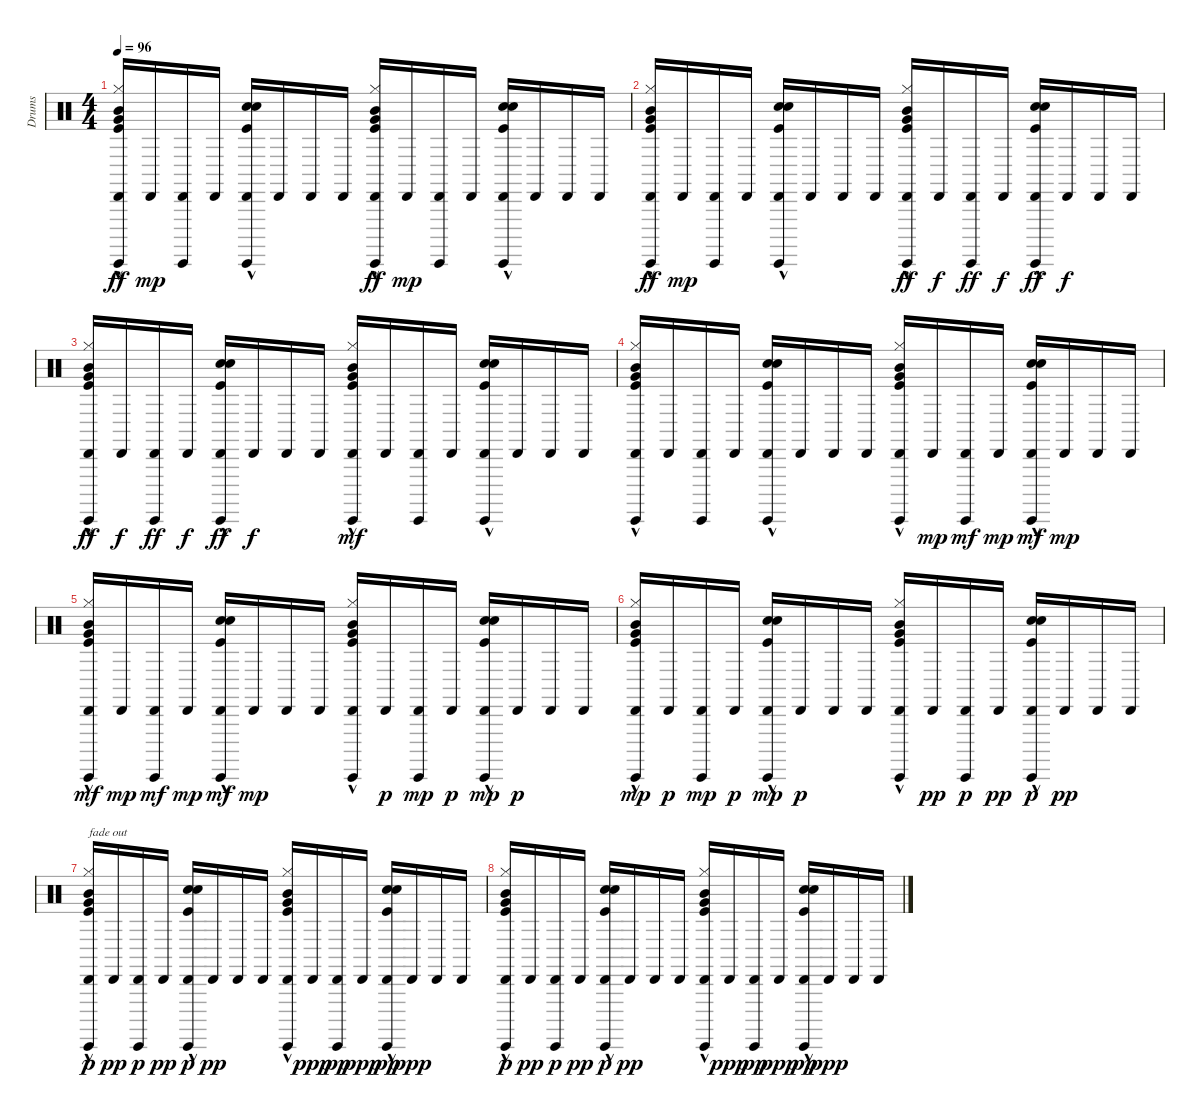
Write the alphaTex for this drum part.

\track ("Drums" "Drums") {instrument percussion}
\staff {score}
\articulation defaults
\ts (4 4)
\tempo 96
\clef neutral
\ks c
("Kick (hit)"{hac} "Hi-Hat (closed)"{hac} "Very Low Tom (hit)"{hac} "Cabasa (hit)" "Guiro (hit)" "Mid Tom (hit)"{hac}).16{dy ff} "Cabasa (hit)".16{dy mp} ("Cabasa (hit)" "Guiro (hit)").16 "Cabasa (hit)".16 ("Kick (hit)"{hac} "Snare (hit) 2"{hac} "Electric Snare (hit)"{hac} "Cabasa (hit)" "Guiro (hit)"{hac}).16 "Cabasa (hit)".16 "Cabasa (hit)".16 "Cabasa (hit)".16 ("Kick (hit)"{hac} "Hi-Hat (closed)"{hac} "Very Low Tom (hit)"{hac} "Cabasa (hit)" "Guiro (hit)" "Mid Tom (hit)"{hac}).16{dy ff} "Cabasa (hit)".16{dy mp} ("Cabasa (hit)" "Guiro (hit)").16 "Cabasa (hit)".16 ("Kick (hit)"{hac} "Snare (hit) 2"{hac} "Electric Snare (hit)"{hac} "Cabasa (hit)" "Guiro (hit)"{hac}).16 "Cabasa (hit)".16 "Cabasa (hit)".16 "Cabasa (hit)".16 |
("Kick (hit)"{hac} "Hi-Hat (closed)"{hac} "Very Low Tom (hit)"{hac} "Cabasa (hit)" "Guiro (hit)" "Mid Tom (hit)"{hac}).16{dy ff} "Cabasa (hit)".16{dy mp} ("Cabasa (hit)" "Guiro (hit)").16 "Cabasa (hit)".16 ("Kick (hit)"{hac} "Snare (hit) 2"{hac} "Electric Snare (hit)"{hac} "Cabasa (hit)" "Guiro (hit)"{hac}).16 "Cabasa (hit)".16 "Cabasa (hit)".16 "Cabasa (hit)".16 ("Kick (hit)"{hac} "Hi-Hat (closed)"{hac} "Very Low Tom (hit)"{hac} "Cabasa (hit)" "Guiro (hit)" "Mid Tom (hit)"{hac}).16{dy ff} "Cabasa (hit)".16{dy f} ("Cabasa (hit)" "Guiro (hit)").16{dy ff} "Cabasa (hit)".16{dy f} ("Kick (hit)"{hac} "Snare (hit) 2"{hac} "Electric Snare (hit)"{hac} "Cabasa (hit)" "Guiro (hit)"{hac}).16{dy ff} "Cabasa (hit)".16{dy f} "Cabasa (hit)".16 "Cabasa (hit)".16 |
("Kick (hit)"{hac} "Hi-Hat (closed)"{hac} "Very Low Tom (hit)"{hac} "Cabasa (hit)" "Guiro (hit)" "Mid Tom (hit)"{hac}).16{dy ff} "Cabasa (hit)".16{dy f} ("Cabasa (hit)" "Guiro (hit)").16{dy ff} "Cabasa (hit)".16{dy f} ("Kick (hit)"{hac} "Snare (hit) 2"{hac} "Electric Snare (hit)"{hac} "Cabasa (hit)" "Guiro (hit)"{hac}).16{dy ff} "Cabasa (hit)".16{dy f} "Cabasa (hit)".16 "Cabasa (hit)".16 ("Kick (hit)"{hac} "Hi-Hat (closed)"{hac} "Very Low Tom (hit)"{hac} "Cabasa (hit)" "Guiro (hit)" "Mid Tom (hit)"{hac}).16{dy mf} "Cabasa (hit)".16 ("Cabasa (hit)" "Guiro (hit)").16 "Cabasa (hit)".16 ("Kick (hit)"{hac} "Snare (hit) 2"{hac} "Electric Snare (hit)"{hac} "Cabasa (hit)" "Guiro (hit)"{hac}).16 "Cabasa (hit)".16 "Cabasa (hit)".16 "Cabasa (hit)".16 |
("Kick (hit)"{hac} "Hi-Hat (closed)"{hac} "Very Low Tom (hit)"{hac} "Cabasa (hit)" "Guiro (hit)" "Mid Tom (hit)"{hac}).16 "Cabasa (hit)".16 ("Cabasa (hit)" "Guiro (hit)").16 "Cabasa (hit)".16 ("Kick (hit)"{hac} "Snare (hit) 2"{hac} "Electric Snare (hit)"{hac} "Cabasa (hit)" "Guiro (hit)"{hac}).16 "Cabasa (hit)".16 "Cabasa (hit)".16 "Cabasa (hit)".16 ("Kick (hit)"{hac} "Hi-Hat (closed)"{hac} "Very Low Tom (hit)"{hac} "Cabasa (hit)" "Guiro (hit)" "Mid Tom (hit)"{hac}).16 "Cabasa (hit)".16{dy mp} ("Cabasa (hit)" "Guiro (hit)").16{dy mf} "Cabasa (hit)".16{dy mp} ("Kick (hit)"{hac} "Snare (hit) 2"{hac} "Electric Snare (hit)"{hac} "Cabasa (hit)" "Guiro (hit)"{hac}).16{dy mf} "Cabasa (hit)".16{dy mp} "Cabasa (hit)".16 "Cabasa (hit)".16 |
("Kick (hit)"{hac} "Hi-Hat (closed)"{hac} "Very Low Tom (hit)"{hac} "Cabasa (hit)" "Guiro (hit)" "Mid Tom (hit)"{hac}).16{dy mf} "Cabasa (hit)".16{dy mp} ("Cabasa (hit)" "Guiro (hit)").16{dy mf} "Cabasa (hit)".16{dy mp} ("Kick (hit)"{hac} "Snare (hit) 2"{hac} "Electric Snare (hit)"{hac} "Cabasa (hit)" "Guiro (hit)"{hac}).16{dy mf} "Cabasa (hit)".16{dy mp} "Cabasa (hit)".16 "Cabasa (hit)".16 ("Kick (hit)"{hac} "Hi-Hat (closed)"{hac} "Very Low Tom (hit)"{hac} "Cabasa (hit)" "Guiro (hit)" "Mid Tom (hit)"{hac}).16 "Cabasa (hit)".16{dy p} ("Cabasa (hit)" "Guiro (hit)").16{dy mp} "Cabasa (hit)".16{dy p} ("Kick (hit)"{hac} "Snare (hit) 2"{hac} "Electric Snare (hit)"{hac} "Cabasa (hit)" "Guiro (hit)"{hac}).16{dy mp} "Cabasa (hit)".16{dy p} "Cabasa (hit)".16 "Cabasa (hit)".16 |
("Kick (hit)"{hac} "Hi-Hat (closed)"{hac} "Very Low Tom (hit)"{hac} "Cabasa (hit)" "Guiro (hit)" "Mid Tom (hit)"{hac}).16{dy mp} "Cabasa (hit)".16{dy p} ("Cabasa (hit)" "Guiro (hit)").16{dy mp} "Cabasa (hit)".16{dy p} ("Kick (hit)"{hac} "Snare (hit) 2"{hac} "Electric Snare (hit)"{hac} "Cabasa (hit)" "Guiro (hit)"{hac}).16{dy mp} "Cabasa (hit)".16{dy p} "Cabasa (hit)".16 "Cabasa (hit)".16 ("Kick (hit)"{hac} "Hi-Hat (closed)"{hac} "Very Low Tom (hit)"{hac} "Cabasa (hit)" "Guiro (hit)" "Mid Tom (hit)"{hac}).16 "Cabasa (hit)".16{dy pp} ("Cabasa (hit)" "Guiro (hit)").16{dy p} "Cabasa (hit)".16{dy pp} ("Kick (hit)"{hac} "Snare (hit) 2"{hac} "Electric Snare (hit)"{hac} "Cabasa (hit)" "Guiro (hit)"{hac}).16{dy p} "Cabasa (hit)".16{dy pp} "Cabasa (hit)".16 "Cabasa (hit)".16 |
("Kick (hit)"{hac} "Hi-Hat (closed)"{hac} "Very Low Tom (hit)"{hac} "Cabasa (hit)" "Guiro (hit)" "Mid Tom (hit)"{hac}).16{txt "fade out" dy p volume 0} "Cabasa (hit)".16{dy pp} ("Cabasa (hit)" "Guiro (hit)").16{dy p} "Cabasa (hit)".16{dy pp} ("Kick (hit)"{hac} "Snare (hit) 2"{hac} "Electric Snare (hit)"{hac} "Cabasa (hit)" "Guiro (hit)"{hac}).16{dy p} "Cabasa (hit)".16{dy pp} "Cabasa (hit)".16 "Cabasa (hit)".16 ("Kick (hit)"{hac} "Hi-Hat (closed)"{hac} "Very Low Tom (hit)"{hac} "Cabasa (hit)" "Guiro (hit)" "Mid Tom (hit)"{hac}).16 "Cabasa (hit)".16{dy ppp} ("Cabasa (hit)" "Guiro (hit)").16{dy pp} "Cabasa (hit)".16{dy ppp} ("Kick (hit)"{hac} "Snare (hit) 2"{hac} "Electric Snare (hit)"{hac} "Cabasa (hit)" "Guiro (hit)"{hac}).16{dy pp} "Cabasa (hit)".16{dy ppp} "Cabasa (hit)".16 "Cabasa (hit)".16 |
("Kick (hit)"{hac} "Hi-Hat (closed)"{hac} "Very Low Tom (hit)"{hac} "Cabasa (hit)" "Guiro (hit)" "Mid Tom (hit)"{hac}).16{dy p} "Cabasa (hit)".16{dy pp} ("Cabasa (hit)" "Guiro (hit)").16{dy p} "Cabasa (hit)".16{dy pp} ("Kick (hit)"{hac} "Snare (hit) 2"{hac} "Electric Snare (hit)"{hac} "Cabasa (hit)" "Guiro (hit)"{hac}).16{dy p} "Cabasa (hit)".16{dy pp} "Cabasa (hit)".16 "Cabasa (hit)".16 ("Kick (hit)"{hac} "Hi-Hat (closed)"{hac} "Very Low Tom (hit)"{hac} "Cabasa (hit)" "Guiro (hit)" "Mid Tom (hit)"{hac}).16 "Cabasa (hit)".16{dy ppp} ("Cabasa (hit)" "Guiro (hit)").16{dy pp} "Cabasa (hit)".16{dy ppp} ("Kick (hit)"{hac} "Snare (hit) 2"{hac} "Electric Snare (hit)"{hac} "Cabasa (hit)" "Guiro (hit)"{hac}).16{dy pp} "Cabasa (hit)".16{dy ppp} "Cabasa (hit)".16 "Cabasa (hit)".16
